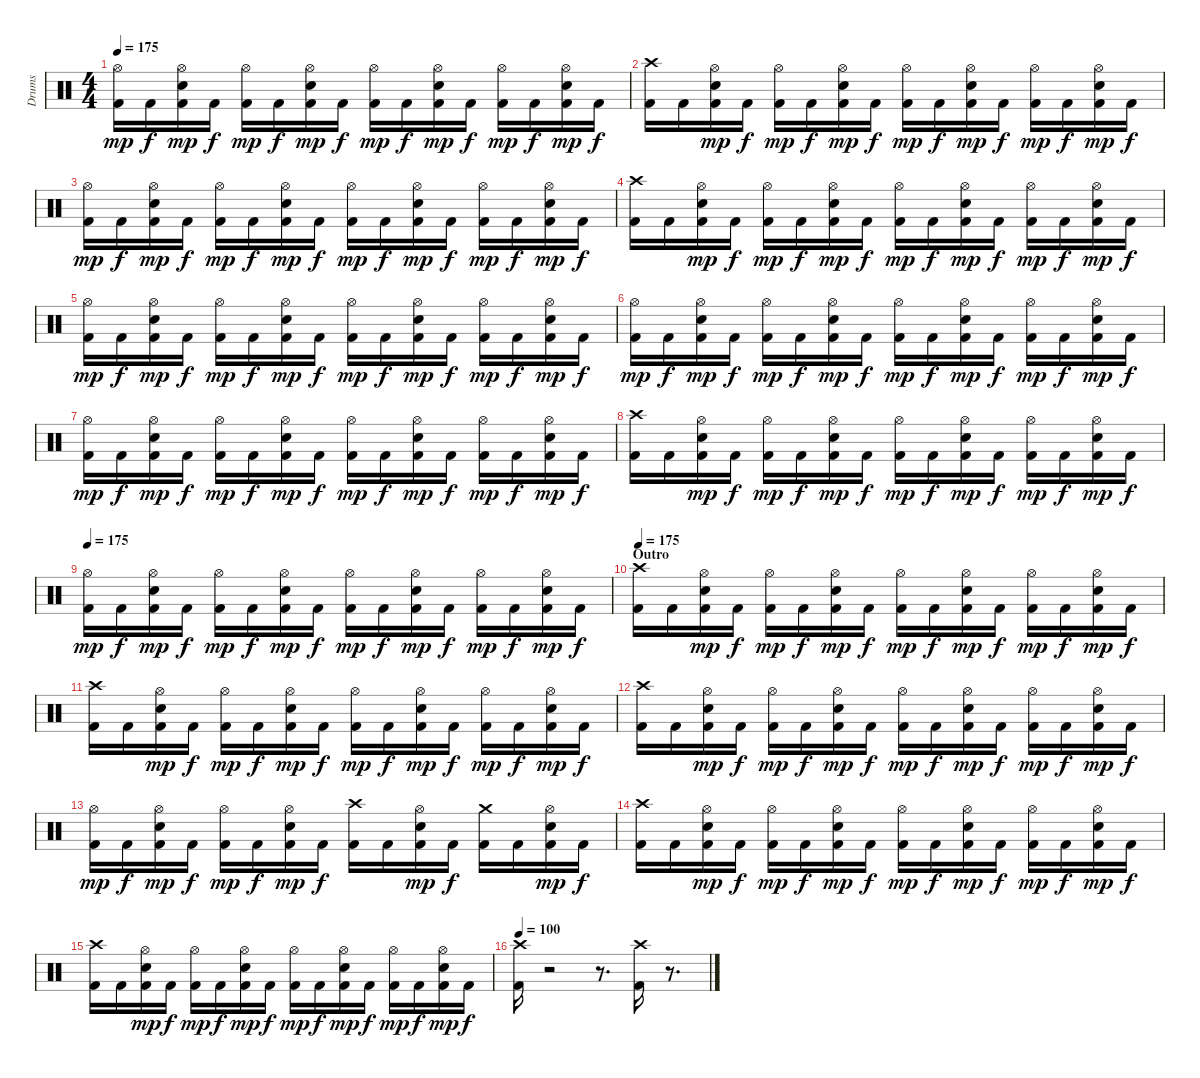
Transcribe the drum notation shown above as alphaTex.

\track ("Drums" "Drums") {instrument percussion}
\staff {score}
\articulation defaults
\ts (4 4)
\tempo 175
\clef neutral
\ks c
("Kick (hit) 2" "Hi-Hat (open)").16{dy mp} "Kick (hit) 2".16{dy f} ("Snare (hit) 2" "Kick (hit) 2" "Hi-Hat (open)").16{dy mp} "Kick (hit) 2".16{dy f} ("Kick (hit) 2" "Hi-Hat (open)").16{dy mp} "Kick (hit) 2".16{dy f} ("Snare (hit) 2" "Kick (hit) 2" "Hi-Hat (open)").16{dy mp} "Kick (hit) 2".16{dy f} ("Kick (hit) 2" "Hi-Hat (open)").16{dy mp} "Kick (hit) 2".16{dy f} ("Snare (hit) 2" "Kick (hit) 2" "Hi-Hat (open)").16{dy mp} "Kick (hit) 2".16{dy f} ("Kick (hit) 2" "Hi-Hat (open)").16{dy mp} "Kick (hit) 2".16{dy f} ("Snare (hit) 2" "Kick (hit) 2" "Hi-Hat (open)").16{dy mp} "Kick (hit) 2".16{dy f} |
("Kick (hit) 2" "Crash high (hit)").16 "Kick (hit) 2".16 ("Snare (hit) 2" "Kick (hit) 2" "Hi-Hat (open)").16{dy mp} "Kick (hit) 2".16{dy f} ("Kick (hit) 2" "Hi-Hat (open)").16{dy mp} "Kick (hit) 2".16{dy f} ("Snare (hit) 2" "Kick (hit) 2" "Hi-Hat (open)").16{dy mp} "Kick (hit) 2".16{dy f} ("Kick (hit) 2" "Hi-Hat (open)").16{dy mp} "Kick (hit) 2".16{dy f} ("Snare (hit) 2" "Kick (hit) 2" "Hi-Hat (open)").16{dy mp} "Kick (hit) 2".16{dy f} ("Kick (hit) 2" "Hi-Hat (open)").16{dy mp} "Kick (hit) 2".16{dy f} ("Snare (hit) 2" "Kick (hit) 2" "Hi-Hat (open)").16{dy mp} "Kick (hit) 2".16{dy f} |
("Kick (hit) 2" "Hi-Hat (open)").16{dy mp} "Kick (hit) 2".16{dy f} ("Snare (hit) 2" "Kick (hit) 2" "Hi-Hat (open)").16{dy mp} "Kick (hit) 2".16{dy f} ("Kick (hit) 2" "Hi-Hat (open)").16{dy mp} "Kick (hit) 2".16{dy f} ("Snare (hit) 2" "Kick (hit) 2" "Hi-Hat (open)").16{dy mp} "Kick (hit) 2".16{dy f} ("Kick (hit) 2" "Hi-Hat (open)").16{dy mp} "Kick (hit) 2".16{dy f} ("Snare (hit) 2" "Kick (hit) 2" "Hi-Hat (open)").16{dy mp} "Kick (hit) 2".16{dy f} ("Kick (hit) 2" "Hi-Hat (open)").16{dy mp} "Kick (hit) 2".16{dy f} ("Snare (hit) 2" "Kick (hit) 2" "Hi-Hat (open)").16{dy mp} "Kick (hit) 2".16{dy f} |
("Kick (hit) 2" "Crash high (hit)").16 "Kick (hit) 2".16 ("Snare (hit) 2" "Kick (hit) 2" "Hi-Hat (open)").16{dy mp} "Kick (hit) 2".16{dy f} ("Kick (hit) 2" "Hi-Hat (open)").16{dy mp} "Kick (hit) 2".16{dy f} ("Snare (hit) 2" "Kick (hit) 2" "Hi-Hat (open)").16{dy mp} "Kick (hit) 2".16{dy f} ("Kick (hit) 2" "Hi-Hat (open)").16{dy mp} "Kick (hit) 2".16{dy f} ("Snare (hit) 2" "Kick (hit) 2" "Hi-Hat (open)").16{dy mp} "Kick (hit) 2".16{dy f} ("Kick (hit) 2" "Hi-Hat (open)").16{dy mp} "Kick (hit) 2".16{dy f} ("Snare (hit) 2" "Kick (hit) 2" "Hi-Hat (open)").16{dy mp} "Kick (hit) 2".16{dy f} |
("Kick (hit) 2" "Hi-Hat (open)").16{dy mp} "Kick (hit) 2".16{dy f} ("Snare (hit) 2" "Kick (hit) 2" "Hi-Hat (open)").16{dy mp} "Kick (hit) 2".16{dy f} ("Kick (hit) 2" "Hi-Hat (open)").16{dy mp} "Kick (hit) 2".16{dy f} ("Snare (hit) 2" "Kick (hit) 2" "Hi-Hat (open)").16{dy mp} "Kick (hit) 2".16{dy f} ("Kick (hit) 2" "Hi-Hat (open)").16{dy mp} "Kick (hit) 2".16{dy f} ("Snare (hit) 2" "Kick (hit) 2" "Hi-Hat (open)").16{dy mp} "Kick (hit) 2".16{dy f} ("Kick (hit) 2" "Hi-Hat (open)").16{dy mp} "Kick (hit) 2".16{dy f} ("Snare (hit) 2" "Kick (hit) 2" "Hi-Hat (open)").16{dy mp} "Kick (hit) 2".16{dy f} |
("Kick (hit) 2" "Hi-Hat (open)").16{dy mp} "Kick (hit) 2".16{dy f} ("Snare (hit) 2" "Kick (hit) 2" "Hi-Hat (open)").16{dy mp} "Kick (hit) 2".16{dy f} ("Kick (hit) 2" "Hi-Hat (open)").16{dy mp} "Kick (hit) 2".16{dy f} ("Snare (hit) 2" "Kick (hit) 2" "Hi-Hat (open)").16{dy mp} "Kick (hit) 2".16{dy f} ("Kick (hit) 2" "Hi-Hat (open)").16{dy mp} "Kick (hit) 2".16{dy f} ("Snare (hit) 2" "Kick (hit) 2" "Hi-Hat (open)").16{dy mp} "Kick (hit) 2".16{dy f} ("Kick (hit) 2" "Hi-Hat (open)").16{dy mp} "Kick (hit) 2".16{dy f} ("Snare (hit) 2" "Kick (hit) 2" "Hi-Hat (open)").16{dy mp} "Kick (hit) 2".16{dy f} |
("Kick (hit) 2" "Hi-Hat (open)").16{dy mp} "Kick (hit) 2".16{dy f} ("Snare (hit) 2" "Kick (hit) 2" "Hi-Hat (open)").16{dy mp} "Kick (hit) 2".16{dy f} ("Kick (hit) 2" "Hi-Hat (open)").16{dy mp} "Kick (hit) 2".16{dy f} ("Snare (hit) 2" "Kick (hit) 2" "Hi-Hat (open)").16{dy mp} "Kick (hit) 2".16{dy f} ("Kick (hit) 2" "Hi-Hat (open)").16{dy mp} "Kick (hit) 2".16{dy f} ("Snare (hit) 2" "Kick (hit) 2" "Hi-Hat (open)").16{dy mp} "Kick (hit) 2".16{dy f} ("Kick (hit) 2" "Hi-Hat (open)").16{dy mp} "Kick (hit) 2".16{dy f} ("Snare (hit) 2" "Kick (hit) 2" "Hi-Hat (open)").16{dy mp} "Kick (hit) 2".16{dy f} |
("Kick (hit) 2" "Crash high (hit)").16 "Kick (hit) 2".16 ("Snare (hit) 2" "Kick (hit) 2" "Hi-Hat (open)").16{dy mp} "Kick (hit) 2".16{dy f} ("Kick (hit) 2" "Hi-Hat (open)").16{dy mp} "Kick (hit) 2".16{dy f} ("Snare (hit) 2" "Kick (hit) 2" "Hi-Hat (open)").16{dy mp} "Kick (hit) 2".16{dy f} ("Kick (hit) 2" "Hi-Hat (open)").16{dy mp} "Kick (hit) 2".16{dy f} ("Snare (hit) 2" "Kick (hit) 2" "Hi-Hat (open)").16{dy mp} "Kick (hit) 2".16{dy f} ("Kick (hit) 2" "Hi-Hat (open)").16{dy mp} "Kick (hit) 2".16{dy f} ("Snare (hit) 2" "Kick (hit) 2" "Hi-Hat (open)").16{dy mp} "Kick (hit) 2".16{dy f} |
\tempo 175
("Kick (hit) 2" "Hi-Hat (open)").16{dy mp} "Kick (hit) 2".16{dy f} ("Snare (hit) 2" "Kick (hit) 2" "Hi-Hat (open)").16{dy mp} "Kick (hit) 2".16{dy f} ("Kick (hit) 2" "Hi-Hat (open)").16{dy mp} "Kick (hit) 2".16{dy f} ("Snare (hit) 2" "Kick (hit) 2" "Hi-Hat (open)").16{dy mp} "Kick (hit) 2".16{dy f} ("Kick (hit) 2" "Hi-Hat (open)").16{dy mp} "Kick (hit) 2".16{dy f} ("Snare (hit) 2" "Kick (hit) 2" "Hi-Hat (open)").16{dy mp} "Kick (hit) 2".16{dy f} ("Kick (hit) 2" "Hi-Hat (open)").16{dy mp} "Kick (hit) 2".16{dy f} ("Snare (hit) 2" "Kick (hit) 2" "Hi-Hat (open)").16{dy mp} "Kick (hit) 2".16{dy f} |
\section ("" "Outro")
\tempo 175
("Kick (hit) 2" "Crash high (hit)").16 "Kick (hit) 2".16 ("Snare (hit) 2" "Kick (hit) 2" "Hi-Hat (open)").16{dy mp} "Kick (hit) 2".16{dy f} ("Kick (hit) 2" "Hi-Hat (open)").16{dy mp} "Kick (hit) 2".16{dy f} ("Snare (hit) 2" "Kick (hit) 2" "Hi-Hat (open)").16{dy mp} "Kick (hit) 2".16{dy f} ("Kick (hit) 2" "Hi-Hat (open)").16{dy mp} "Kick (hit) 2".16{dy f} ("Snare (hit) 2" "Kick (hit) 2" "Hi-Hat (open)").16{dy mp} "Kick (hit) 2".16{dy f} ("Kick (hit) 2" "Hi-Hat (open)").16{dy mp} "Kick (hit) 2".16{dy f} ("Snare (hit) 2" "Kick (hit) 2" "Hi-Hat (open)").16{dy mp} "Kick (hit) 2".16{dy f} |
("Kick (hit) 2" "Crash high (hit)").16 "Kick (hit) 2".16 ("Snare (hit) 2" "Kick (hit) 2" "Hi-Hat (open)").16{dy mp} "Kick (hit) 2".16{dy f} ("Kick (hit) 2" "Hi-Hat (open)").16{dy mp} "Kick (hit) 2".16{dy f} ("Snare (hit) 2" "Kick (hit) 2" "Hi-Hat (open)").16{dy mp} "Kick (hit) 2".16{dy f} ("Kick (hit) 2" "Hi-Hat (open)").16{dy mp} "Kick (hit) 2".16{dy f} ("Snare (hit) 2" "Kick (hit) 2" "Hi-Hat (open)").16{dy mp} "Kick (hit) 2".16{dy f} ("Kick (hit) 2" "Hi-Hat (open)").16{dy mp} "Kick (hit) 2".16{dy f} ("Snare (hit) 2" "Kick (hit) 2" "Hi-Hat (open)").16{dy mp} "Kick (hit) 2".16{dy f} |
("Kick (hit) 2" "Crash high (hit)").16 "Kick (hit) 2".16 ("Snare (hit) 2" "Kick (hit) 2" "Hi-Hat (open)").16{dy mp} "Kick (hit) 2".16{dy f} ("Kick (hit) 2" "Hi-Hat (open)").16{dy mp} "Kick (hit) 2".16{dy f} ("Snare (hit) 2" "Kick (hit) 2" "Hi-Hat (open)").16{dy mp} "Kick (hit) 2".16{dy f} ("Kick (hit) 2" "Hi-Hat (open)").16{dy mp} "Kick (hit) 2".16{dy f} ("Snare (hit) 2" "Kick (hit) 2" "Hi-Hat (open)").16{dy mp} "Kick (hit) 2".16{dy f} ("Kick (hit) 2" "Hi-Hat (open)").16{dy mp} "Kick (hit) 2".16{dy f} ("Snare (hit) 2" "Kick (hit) 2" "Hi-Hat (open)").16{dy mp} "Kick (hit) 2".16{dy f} |
("Kick (hit) 2" "Hi-Hat (open)").16{dy mp} "Kick (hit) 2".16{dy f} ("Snare (hit) 2" "Kick (hit) 2" "Hi-Hat (open)").16{dy mp} "Kick (hit) 2".16{dy f} ("Kick (hit) 2" "Hi-Hat (open)").16{dy mp} "Kick (hit) 2".16{dy f} ("Snare (hit) 2" "Kick (hit) 2" "Hi-Hat (open)").16{dy mp} "Kick (hit) 2".16{dy f} ("Kick (hit) 2" "Crash high (hit)").16 "Kick (hit) 2".16 ("Snare (hit) 2" "Kick (hit) 2" "Hi-Hat (open)").16{dy mp} "Kick (hit) 2".16{dy f} ("Kick (hit) 2" "Crash medium (hit)").16 "Kick (hit) 2".16 ("Snare (hit) 2" "Kick (hit) 2" "Hi-Hat (open)").16{dy mp} "Kick (hit) 2".16{dy f} |
("Kick (hit) 2" "Crash high (hit)").16 "Kick (hit) 2".16 ("Snare (hit) 2" "Kick (hit) 2" "Hi-Hat (open)").16{dy mp} "Kick (hit) 2".16{dy f} ("Kick (hit) 2" "Hi-Hat (open)").16{dy mp} "Kick (hit) 2".16{dy f} ("Snare (hit) 2" "Kick (hit) 2" "Hi-Hat (open)").16{dy mp} "Kick (hit) 2".16{dy f} ("Kick (hit) 2" "Hi-Hat (open)").16{dy mp} "Kick (hit) 2".16{dy f} ("Snare (hit) 2" "Kick (hit) 2" "Hi-Hat (open)").16{dy mp} "Kick (hit) 2".16{dy f} ("Kick (hit) 2" "Hi-Hat (open)").16{dy mp} "Kick (hit) 2".16{dy f} ("Snare (hit) 2" "Kick (hit) 2" "Hi-Hat (open)").16{dy mp} "Kick (hit) 2".16{dy f} |
("Kick (hit) 2" "Crash high (hit)").16 "Kick (hit) 2".16 ("Snare (hit) 2" "Kick (hit) 2" "Hi-Hat (open)").16{dy mp} "Kick (hit) 2".16{dy f} ("Kick (hit) 2" "Hi-Hat (open)").16{dy mp} "Kick (hit) 2".16{dy f} ("Snare (hit) 2" "Kick (hit) 2" "Hi-Hat (open)").16{dy mp} "Kick (hit) 2".16{dy f} ("Kick (hit) 2" "Hi-Hat (open)").16{dy mp} "Kick (hit) 2".16{dy f} ("Snare (hit) 2" "Kick (hit) 2" "Hi-Hat (open)").16{dy mp} "Kick (hit) 2".16{dy f} ("Kick (hit) 2" "Hi-Hat (open)").16{dy mp} "Kick (hit) 2".16{dy f} ("Snare (hit) 2" "Kick (hit) 2" "Hi-Hat (open)").16{dy mp} "Kick (hit) 2".16{dy f} |
\tempo 100
("Crash high (hit)" "Kick (hit) 2").16 r.2 r.8{d} ("Crash high (hit)" "Kick (hit) 2").16 r.8{d}
